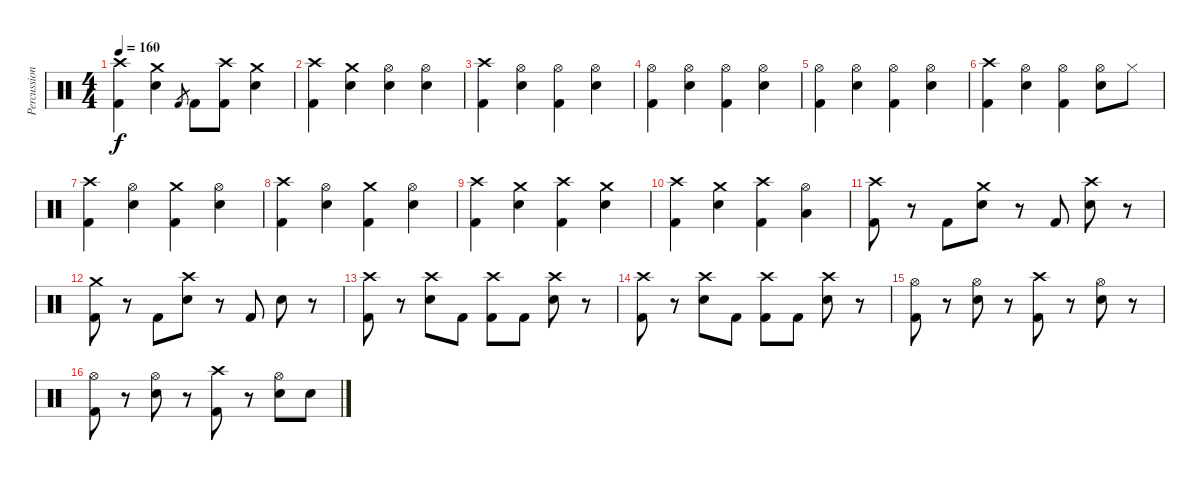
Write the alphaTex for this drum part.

\track ("Percussion" "Percussion") {instrument percussion}
\staff {score}
\articulation defaults
\ts (4 4)
\tempo 160
\clef neutral
\ks c
("Crash high (hit)" "Kick (hit) 2").4{dy f} ("Crash medium (hit)" "Electric Snare (hit)").4 "Kick (hit) 2".8{gr} "Kick (hit) 2".8 ("Crash high (hit)" "Kick (hit) 2").8 ("Crash medium (hit)" "Electric Snare (hit)").4 |
("Crash high (hit)" "Kick (hit) 2").4 ("Crash medium (hit)" "Electric Snare (hit)").4 ("Hi-Hat (open)" "Electric Snare (hit)").4 ("Hi-Hat (open)" "Electric Snare (hit)").4 |
("Crash high (hit)" "Kick (hit) 2").4 ("Hi-Hat (open)" "Electric Snare (hit)").4 ("Hi-Hat (open)" "Kick (hit) 2").4 ("Hi-Hat (open)" "Electric Snare (hit)").4 |
("Hi-Hat (open)" "Kick (hit) 2").4 ("Hi-Hat (open)" "Electric Snare (hit)").4 ("Hi-Hat (open)" "Kick (hit) 2").4 ("Hi-Hat (open)" "Electric Snare (hit)").4 |
("Hi-Hat (open)" "Kick (hit) 2").4 ("Hi-Hat (open)" "Electric Snare (hit)").4 ("Hi-Hat (open)" "Kick (hit) 2").4 ("Hi-Hat (open)" "Electric Snare (hit)").4 |
("Crash high (hit)" "Kick (hit) 2").4 ("Hi-Hat (open)" "Electric Snare (hit)").4 ("Hi-Hat (open)" "Kick (hit) 2").4 ("Hi-Hat (open)" "Electric Snare (hit)").8 "Hi-Hat (closed)".8 |
("Crash high (hit)" "Kick (hit) 2").4 ("Hi-Hat (open)" "Electric Snare (hit)").4 ("Crash medium (hit)" "Kick (hit) 2").4 ("Hi-Hat (open)" "Electric Snare (hit)").4 |
("Crash high (hit)" "Kick (hit) 2").4 ("Hi-Hat (open)" "Electric Snare (hit)").4 ("Crash medium (hit)" "Kick (hit) 2").4 ("Hi-Hat (open)" "Electric Snare (hit)").4 |
("Crash high (hit)" "Kick (hit) 2").4 ("Crash medium (hit)" "Electric Snare (hit)").4 ("Crash high (hit)" "Kick (hit) 2").4 ("Crash medium (hit)" "Electric Snare (hit)").4 |
("Crash high (hit)" "Kick (hit) 2").4 ("Crash medium (hit)" "Electric Snare (hit)").4 ("Crash high (hit)" "Kick (hit) 2").4 ("Hi-Hat (open)" "Low Tom (hit)").4 |
("Crash high (hit)" "Kick (hit) 2").8 r.8 "Kick (hit) 2".8 ("Crash medium (hit)" "Electric Snare (hit)").8 r.8 "Kick (hit) 2".8 ("Crash high (hit)" "Electric Snare (hit)").8 r.8 |
("Crash medium (hit)" "Kick (hit) 2").8 r.8 "Kick (hit) 2".8 ("Crash high (hit)" "Electric Snare (hit)").8 r.8 "Kick (hit) 2".8 "Electric Snare (hit)".8 r.8 |
("Crash high (hit)" "Kick (hit) 2").8 r.8 ("Crash high (hit)" "Electric Snare (hit)").8 "Kick (hit) 2".8 ("Crash high (hit)" "Kick (hit) 2").8 "Kick (hit) 2".8 ("Crash high (hit)" "Electric Snare (hit)").8 r.8 |
("Crash high (hit)" "Kick (hit) 2").8 r.8 ("Crash high (hit)" "Electric Snare (hit)").8 "Kick (hit) 2".8 ("Crash high (hit)" "Kick (hit) 2").8 "Kick (hit) 2".8 ("Crash high (hit)" "Electric Snare (hit)").8 r.8 |
("Hi-Hat (open)" "Kick (hit) 2").8 r.8 ("Hi-Hat (open)" "Electric Snare (hit)").8 r.8 ("Crash high (hit)" "Kick (hit) 2").8 r.8 ("Hi-Hat (open)" "Electric Snare (hit)").8 r.8 |
("Hi-Hat (open)" "Kick (hit) 2").8 r.8 ("Hi-Hat (open)" "Electric Snare (hit)").8 r.8 ("Crash high (hit)" "Kick (hit) 2").8 r.8 ("Hi-Hat (open)" "Electric Snare (hit)").8 "Electric Snare (hit)".8
